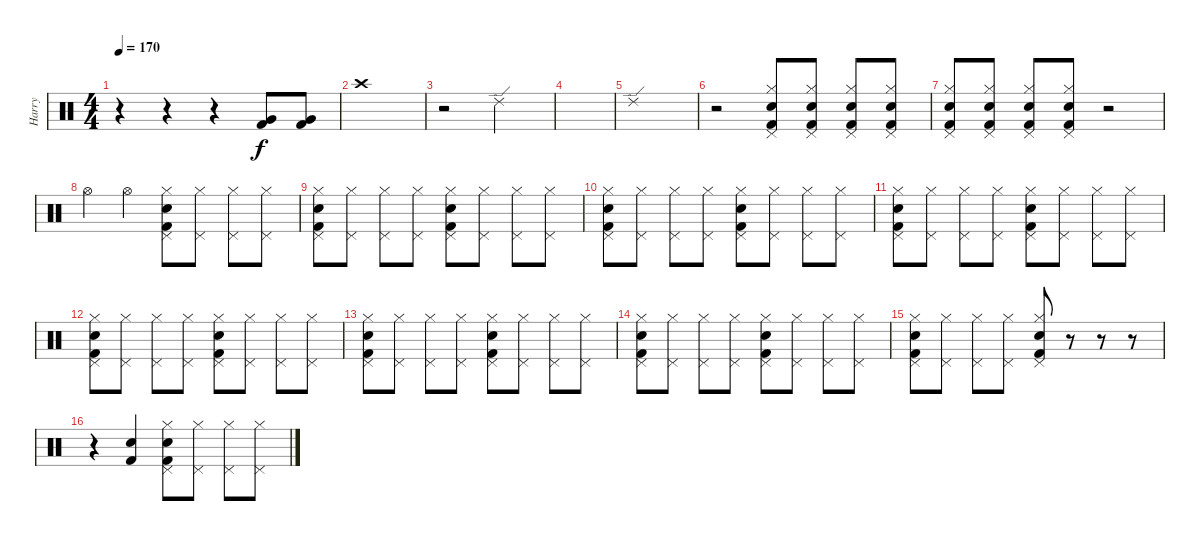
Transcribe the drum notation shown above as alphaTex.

\track ("Harry" "Harry") {instrument percussion}
\staff {score}
\articulation defaults
\ts (4 4)
\tempo 170
\clef neutral
\ks c
r.4{dy f} r.4 r.4 ("Kick (hit) 2" "Very Low Tom (hit)").8 ("Kick (hit) 2" "Very Low Tom (hit)").8 |
"Crash high (hit)".1 |
r.2 "Ride (edge) 2".2 |
|
"Ride (edge) 2".1 |
r.2 ("Hi-Hat (closed)" "Pedal Hi-Hat (hit)" "Kick (hit) 2" "Snare (hit) 2").8 ("Hi-Hat (closed)" "Pedal Hi-Hat (hit)" "Kick (hit) 2" "Snare (hit) 2").8 ("Hi-Hat (closed)" "Pedal Hi-Hat (hit)" "Kick (hit) 2" "Snare (hit) 2").8 ("Hi-Hat (closed)" "Pedal Hi-Hat (hit)" "Kick (hit) 2" "Snare (hit) 2").8 |
("Hi-Hat (closed)" "Pedal Hi-Hat (hit)" "Kick (hit) 2" "Snare (hit) 2").8 ("Hi-Hat (closed)" "Pedal Hi-Hat (hit)" "Kick (hit) 2" "Snare (hit) 2").8 ("Hi-Hat (closed)" "Pedal Hi-Hat (hit)" "Kick (hit) 2" "Snare (hit) 2").8 ("Hi-Hat (closed)" "Pedal Hi-Hat (hit)" "Kick (hit) 2" "Snare (hit) 2").8 r.2 |
"Hi-Hat (open)".4 "Hi-Hat (open)".4 ("Hi-Hat (closed)" "Pedal Hi-Hat (hit)" "Kick (hit) 2" "Snare (hit) 2").8 ("Hi-Hat (closed)" "Pedal Hi-Hat (hit)").8 ("Hi-Hat (closed)" "Pedal Hi-Hat (hit)").8 ("Hi-Hat (closed)" "Pedal Hi-Hat (hit)").8 |
("Hi-Hat (closed)" "Pedal Hi-Hat (hit)" "Kick (hit) 2" "Snare (hit) 2").8 ("Hi-Hat (closed)" "Pedal Hi-Hat (hit)").8 ("Hi-Hat (closed)" "Pedal Hi-Hat (hit)").8 ("Hi-Hat (closed)" "Pedal Hi-Hat (hit)").8 ("Hi-Hat (closed)" "Pedal Hi-Hat (hit)" "Kick (hit) 2" "Snare (hit) 2").8 ("Hi-Hat (closed)" "Pedal Hi-Hat (hit)").8 ("Hi-Hat (closed)" "Pedal Hi-Hat (hit)").8 ("Hi-Hat (closed)" "Pedal Hi-Hat (hit)").8 |
("Hi-Hat (closed)" "Pedal Hi-Hat (hit)" "Kick (hit) 2" "Snare (hit) 2").8 ("Hi-Hat (closed)" "Pedal Hi-Hat (hit)").8 ("Hi-Hat (closed)" "Pedal Hi-Hat (hit)").8 ("Hi-Hat (closed)" "Pedal Hi-Hat (hit)").8 ("Hi-Hat (closed)" "Pedal Hi-Hat (hit)" "Kick (hit) 2" "Snare (hit) 2").8 ("Hi-Hat (closed)" "Pedal Hi-Hat (hit)").8 ("Hi-Hat (closed)" "Pedal Hi-Hat (hit)").8 ("Hi-Hat (closed)" "Pedal Hi-Hat (hit)").8 |
("Hi-Hat (closed)" "Pedal Hi-Hat (hit)" "Kick (hit) 2" "Snare (hit) 2").8 ("Hi-Hat (closed)" "Pedal Hi-Hat (hit)").8 ("Hi-Hat (closed)" "Pedal Hi-Hat (hit)").8 ("Hi-Hat (closed)" "Pedal Hi-Hat (hit)").8 ("Hi-Hat (closed)" "Pedal Hi-Hat (hit)" "Kick (hit) 2" "Snare (hit) 2").8 ("Hi-Hat (closed)" "Pedal Hi-Hat (hit)").8 ("Hi-Hat (closed)" "Pedal Hi-Hat (hit)").8 ("Hi-Hat (closed)" "Pedal Hi-Hat (hit)").8 |
("Hi-Hat (closed)" "Pedal Hi-Hat (hit)" "Kick (hit) 2" "Snare (hit) 2").8 ("Hi-Hat (closed)" "Pedal Hi-Hat (hit)").8 ("Hi-Hat (closed)" "Pedal Hi-Hat (hit)").8 ("Hi-Hat (closed)" "Pedal Hi-Hat (hit)").8 ("Hi-Hat (closed)" "Pedal Hi-Hat (hit)" "Kick (hit) 2" "Snare (hit) 2").8 ("Hi-Hat (closed)" "Pedal Hi-Hat (hit)").8 ("Hi-Hat (closed)" "Pedal Hi-Hat (hit)").8 ("Hi-Hat (closed)" "Pedal Hi-Hat (hit)").8 |
("Hi-Hat (closed)" "Pedal Hi-Hat (hit)" "Kick (hit) 2" "Snare (hit) 2").8 ("Hi-Hat (closed)" "Pedal Hi-Hat (hit)").8 ("Hi-Hat (closed)" "Pedal Hi-Hat (hit)").8 ("Hi-Hat (closed)" "Pedal Hi-Hat (hit)").8 ("Hi-Hat (closed)" "Pedal Hi-Hat (hit)" "Kick (hit) 2" "Snare (hit) 2").8 ("Hi-Hat (closed)" "Pedal Hi-Hat (hit)").8 ("Hi-Hat (closed)" "Pedal Hi-Hat (hit)").8 ("Hi-Hat (closed)" "Pedal Hi-Hat (hit)").8 |
("Hi-Hat (closed)" "Pedal Hi-Hat (hit)" "Kick (hit) 2" "Snare (hit) 2").8 ("Hi-Hat (closed)" "Pedal Hi-Hat (hit)").8 ("Hi-Hat (closed)" "Pedal Hi-Hat (hit)").8 ("Hi-Hat (closed)" "Pedal Hi-Hat (hit)").8 ("Hi-Hat (closed)" "Pedal Hi-Hat (hit)" "Kick (hit) 2" "Snare (hit) 2").8 ("Hi-Hat (closed)" "Pedal Hi-Hat (hit)").8 ("Hi-Hat (closed)" "Pedal Hi-Hat (hit)").8 ("Hi-Hat (closed)" "Pedal Hi-Hat (hit)").8 |
("Hi-Hat (closed)" "Pedal Hi-Hat (hit)" "Kick (hit) 2" "Snare (hit) 2").8 ("Hi-Hat (closed)" "Pedal Hi-Hat (hit)").8 ("Hi-Hat (closed)" "Pedal Hi-Hat (hit)").8 ("Hi-Hat (closed)" "Pedal Hi-Hat (hit)").8 ("Hi-Hat (closed)" "Pedal Hi-Hat (hit)" "Kick (hit) 2" "Snare (hit) 2").8 r.8 r.8 r.8 |
r.4 ("Snare (hit) 2" "Kick (hit) 2").4 ("Hi-Hat (closed)" "Pedal Hi-Hat (hit)" "Kick (hit) 2" "Snare (hit) 2").8 ("Hi-Hat (closed)" "Pedal Hi-Hat (hit)").8 ("Hi-Hat (closed)" "Pedal Hi-Hat (hit)").8 ("Hi-Hat (closed)" "Pedal Hi-Hat (hit)").8
